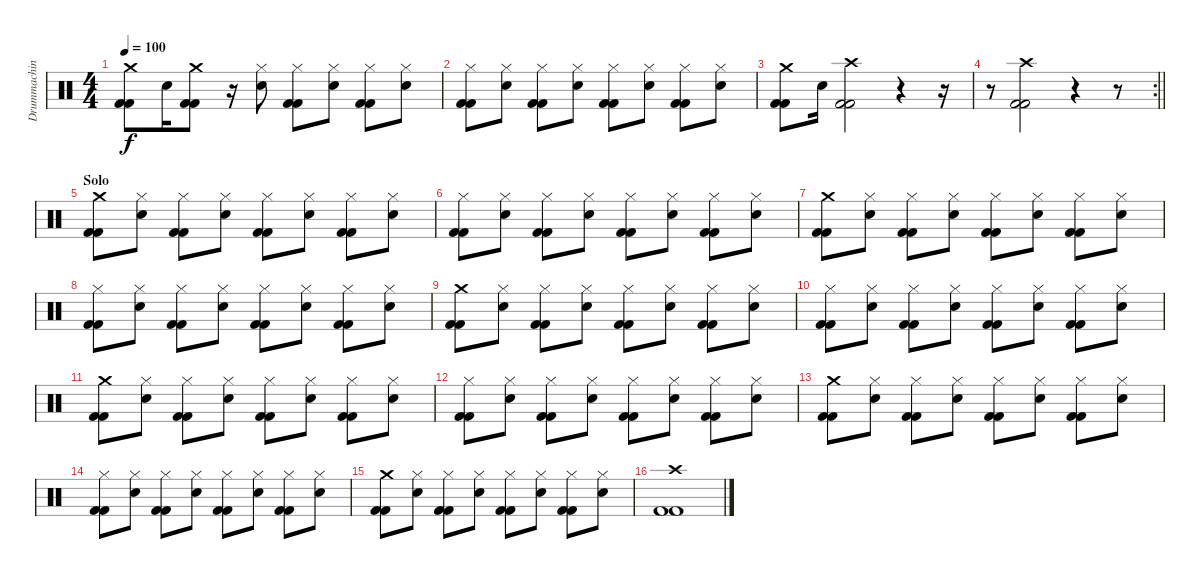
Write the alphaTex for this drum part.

\track ("Drummachine" "Drummachin") {instrument percussion}
\staff {score}
\articulation defaults
\ts (4 4)
\tempo 100
\clef neutral
\ks c
("Crash medium (hit)" "Kick (hit) 2" "Kick (hit) 2").8{dy f} "Snare (hit) 2".16 ("Crash medium (hit)" "Kick (hit) 2" "Kick (hit) 2").8 r.16 ("Hi-Hat (closed)" "Snare (hit) 2").8 ("Hi-Hat (closed)" "Kick (hit) 2" "Kick (hit) 2").8 ("Hi-Hat (closed)" "Snare (hit) 2").8 ("Hi-Hat (closed)" "Kick (hit) 2" "Kick (hit) 2").8 ("Hi-Hat (closed)" "Snare (hit) 2").8 |
("Hi-Hat (closed)" "Kick (hit) 2" "Kick (hit) 2").8 ("Hi-Hat (closed)" "Snare (hit) 2").8 ("Hi-Hat (closed)" "Kick (hit) 2" "Kick (hit) 2").8 ("Hi-Hat (closed)" "Snare (hit) 2").8 ("Hi-Hat (closed)" "Kick (hit) 2" "Kick (hit) 2").8 ("Hi-Hat (closed)" "Snare (hit) 2").8 ("Hi-Hat (closed)" "Kick (hit) 2" "Kick (hit) 2").8 ("Hi-Hat (closed)" "Snare (hit) 2").8 |
("Crash medium (hit)" "Kick (hit) 2" "Kick (hit) 2").8 "Snare (hit) 2".16 ("Crash high (hit)" "Kick (hit) 2" "Kick (hit) 2").2 r.4 r.16 |
\rc 2
\barLineRight lightlight
r.8 ("Crash high (hit)" "Kick (hit) 2" "Kick (hit) 2").2 r.4 r.8 |
\section ("" "Solo")
("Crash medium (hit)" "Kick (hit) 2" "Kick (hit) 2").8 ("Hi-Hat (closed)" "Snare (hit) 2").8 ("Hi-Hat (closed)" "Kick (hit) 2" "Kick (hit) 2").8 ("Hi-Hat (closed)" "Snare (hit) 2").8 ("Hi-Hat (closed)" "Kick (hit) 2" "Kick (hit) 2").8 ("Hi-Hat (closed)" "Snare (hit) 2").8 ("Hi-Hat (closed)" "Kick (hit) 2" "Kick (hit) 2").8 ("Hi-Hat (closed)" "Snare (hit) 2").8 |
("Hi-Hat (closed)" "Kick (hit) 2" "Kick (hit) 2").8 ("Hi-Hat (closed)" "Snare (hit) 2").8 ("Hi-Hat (closed)" "Kick (hit) 2" "Kick (hit) 2").8 ("Hi-Hat (closed)" "Snare (hit) 2").8 ("Hi-Hat (closed)" "Kick (hit) 2" "Kick (hit) 2").8 ("Hi-Hat (closed)" "Snare (hit) 2").8 ("Hi-Hat (closed)" "Kick (hit) 2" "Kick (hit) 2").8 ("Hi-Hat (closed)" "Snare (hit) 2").8 |
("Crash medium (hit)" "Kick (hit) 2" "Kick (hit) 2").8 ("Hi-Hat (closed)" "Snare (hit) 2").8 ("Hi-Hat (closed)" "Kick (hit) 2" "Kick (hit) 2").8 ("Hi-Hat (closed)" "Snare (hit) 2").8 ("Hi-Hat (closed)" "Kick (hit) 2" "Kick (hit) 2").8 ("Hi-Hat (closed)" "Snare (hit) 2").8 ("Hi-Hat (closed)" "Kick (hit) 2" "Kick (hit) 2").8 ("Hi-Hat (closed)" "Snare (hit) 2").8 |
("Hi-Hat (closed)" "Kick (hit) 2" "Kick (hit) 2").8 ("Hi-Hat (closed)" "Snare (hit) 2").8 ("Hi-Hat (closed)" "Kick (hit) 2" "Kick (hit) 2").8 ("Hi-Hat (closed)" "Snare (hit) 2").8 ("Hi-Hat (closed)" "Kick (hit) 2" "Kick (hit) 2").8 ("Hi-Hat (closed)" "Snare (hit) 2").8 ("Hi-Hat (closed)" "Kick (hit) 2" "Kick (hit) 2").8 ("Hi-Hat (closed)" "Snare (hit) 2").8 |
("Crash medium (hit)" "Kick (hit) 2" "Kick (hit) 2").8 ("Hi-Hat (closed)" "Snare (hit) 2").8 ("Hi-Hat (closed)" "Kick (hit) 2" "Kick (hit) 2").8 ("Hi-Hat (closed)" "Snare (hit) 2").8 ("Hi-Hat (closed)" "Kick (hit) 2" "Kick (hit) 2").8 ("Hi-Hat (closed)" "Snare (hit) 2").8 ("Hi-Hat (closed)" "Kick (hit) 2" "Kick (hit) 2").8 ("Hi-Hat (closed)" "Snare (hit) 2").8 |
("Hi-Hat (closed)" "Kick (hit) 2" "Kick (hit) 2").8 ("Hi-Hat (closed)" "Snare (hit) 2").8 ("Hi-Hat (closed)" "Kick (hit) 2" "Kick (hit) 2").8 ("Hi-Hat (closed)" "Snare (hit) 2").8 ("Hi-Hat (closed)" "Kick (hit) 2" "Kick (hit) 2").8 ("Hi-Hat (closed)" "Snare (hit) 2").8 ("Hi-Hat (closed)" "Kick (hit) 2" "Kick (hit) 2").8 ("Hi-Hat (closed)" "Snare (hit) 2").8 |
("Crash medium (hit)" "Kick (hit) 2" "Kick (hit) 2").8 ("Hi-Hat (closed)" "Snare (hit) 2").8 ("Hi-Hat (closed)" "Kick (hit) 2" "Kick (hit) 2").8 ("Hi-Hat (closed)" "Snare (hit) 2").8 ("Hi-Hat (closed)" "Kick (hit) 2" "Kick (hit) 2").8 ("Hi-Hat (closed)" "Snare (hit) 2").8 ("Hi-Hat (closed)" "Kick (hit) 2" "Kick (hit) 2").8 ("Hi-Hat (closed)" "Snare (hit) 2").8 |
("Hi-Hat (closed)" "Kick (hit) 2" "Kick (hit) 2").8 ("Hi-Hat (closed)" "Snare (hit) 2").8 ("Hi-Hat (closed)" "Kick (hit) 2" "Kick (hit) 2").8 ("Hi-Hat (closed)" "Snare (hit) 2").8 ("Hi-Hat (closed)" "Kick (hit) 2" "Kick (hit) 2").8 ("Hi-Hat (closed)" "Snare (hit) 2").8 ("Hi-Hat (closed)" "Kick (hit) 2" "Kick (hit) 2").8 ("Hi-Hat (closed)" "Snare (hit) 2").8 |
("Crash medium (hit)" "Kick (hit) 2" "Kick (hit) 2").8 ("Hi-Hat (closed)" "Snare (hit) 2").8 ("Hi-Hat (closed)" "Kick (hit) 2" "Kick (hit) 2").8 ("Hi-Hat (closed)" "Snare (hit) 2").8 ("Hi-Hat (closed)" "Kick (hit) 2" "Kick (hit) 2").8 ("Hi-Hat (closed)" "Snare (hit) 2").8 ("Hi-Hat (closed)" "Kick (hit) 2" "Kick (hit) 2").8 ("Hi-Hat (closed)" "Snare (hit) 2").8 |
("Hi-Hat (closed)" "Kick (hit) 2" "Kick (hit) 2").8 ("Hi-Hat (closed)" "Snare (hit) 2").8 ("Hi-Hat (closed)" "Kick (hit) 2" "Kick (hit) 2").8 ("Hi-Hat (closed)" "Snare (hit) 2").8 ("Hi-Hat (closed)" "Kick (hit) 2" "Kick (hit) 2").8 ("Hi-Hat (closed)" "Snare (hit) 2").8 ("Hi-Hat (closed)" "Kick (hit) 2" "Kick (hit) 2").8 ("Hi-Hat (closed)" "Snare (hit) 2").8 |
("Crash medium (hit)" "Kick (hit) 2" "Kick (hit) 2").8 ("Hi-Hat (closed)" "Snare (hit) 2").8 ("Hi-Hat (closed)" "Kick (hit) 2" "Kick (hit) 2").8 ("Hi-Hat (closed)" "Snare (hit) 2").8 ("Hi-Hat (closed)" "Kick (hit) 2" "Kick (hit) 2").8 ("Hi-Hat (closed)" "Snare (hit) 2").8 ("Hi-Hat (closed)" "Kick (hit) 2" "Kick (hit) 2").8 ("Hi-Hat (closed)" "Snare (hit) 2").8 |
("Crash high (hit)" "Kick (hit) 2" "Kick (hit) 2").1
